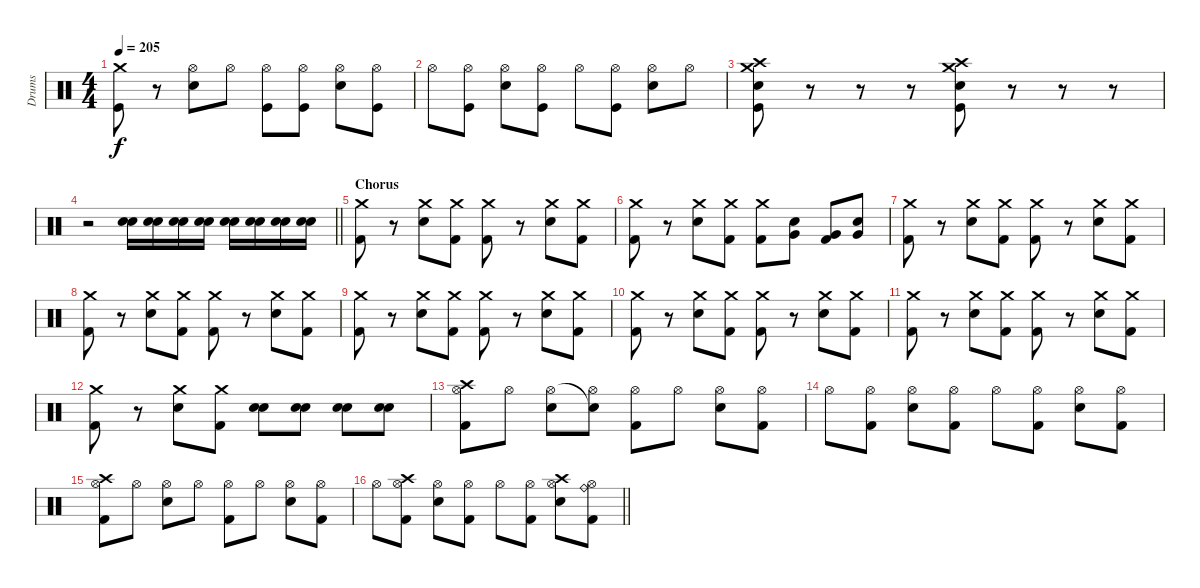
\track ("Drums" "Drums") {instrument percussion}
\staff {score}
\articulation defaults
\ts (4 4)
\tempo 205
\clef neutral
\ks c
("Crash medium (hit)" "Kick (hit)").8{dy f} r.8 ("Hi-Hat (open)" "Electric Snare (hit)").8 "Hi-Hat (open)".8 ("Hi-Hat (open)" "Kick (hit)").8 ("Hi-Hat (open)" "Kick (hit)").8 ("Hi-Hat (open)" "Electric Snare (hit)").8 ("Hi-Hat (open)" "Kick (hit)").8 |
"Hi-Hat (open)".8 ("Hi-Hat (open)" "Kick (hit)").8 ("Hi-Hat (open)" "Electric Snare (hit)").8 ("Hi-Hat (open)" "Kick (hit)").8 "Hi-Hat (open)".8 ("Hi-Hat (open)" "Kick (hit)").8 ("Hi-Hat (open)" "Electric Snare (hit)").8 "Hi-Hat (open)".8 |
("Crash medium (hit)" "Crash high (hit)" "Electric Snare (hit)" "Kick (hit)").8 r.8 r.8 r.8 ("Crash medium (hit)" "Crash high (hit)" "Electric Snare (hit)" "Kick (hit)").8 r.8 r.8 r.8 |
\barLineRight lightlight
r.2 ("Electric Snare (hit)" "Snare (hit) 2").16 ("Electric Snare (hit)" "Snare (hit) 2").16 ("Electric Snare (hit)" "Snare (hit) 2").16 ("Electric Snare (hit)" "Snare (hit) 2").16 ("Electric Snare (hit)" "Snare (hit) 2").16 ("Electric Snare (hit)" "Snare (hit) 2").16 ("Electric Snare (hit)" "Snare (hit) 2").16 ("Electric Snare (hit)" "Snare (hit) 2").16 |
\section ("" "Chorus")
("Kick (hit) 2" "Crash medium (hit)").8 r.8 ("Snare (hit) 2" "Crash medium (hit)").8 ("Kick (hit) 2" "Crash medium (hit)").8 ("Kick (hit) 2" "Crash medium (hit)").8 r.8 ("Snare (hit) 2" "Crash medium (hit)").8 ("Kick (hit) 2" "Crash medium (hit)").8 |
("Kick (hit) 2" "Crash medium (hit)").8 r.8 ("Snare (hit) 2" "Crash medium (hit)").8 ("Kick (hit) 2" "Crash medium (hit)").8 ("Kick (hit) 2" "Crash medium (hit)").8 ("Snare (hit) 2" "Very Low Tom (hit)").8 ("Kick (hit) 2" "Very Low Tom (hit)").8 ("Snare (hit) 2" "Very Low Tom (hit)").8 |
("Kick (hit) 2" "Crash medium (hit)").8 r.8 ("Snare (hit) 2" "Crash medium (hit)").8 ("Kick (hit) 2" "Crash medium (hit)").8 ("Kick (hit) 2" "Crash medium (hit)").8 r.8 ("Snare (hit) 2" "Crash medium (hit)").8 ("Kick (hit) 2" "Crash medium (hit)").8 |
("Kick (hit) 2" "Crash medium (hit)").8 r.8 ("Snare (hit) 2" "Crash medium (hit)").8 ("Kick (hit) 2" "Crash medium (hit)").8 ("Kick (hit) 2" "Crash medium (hit)").8 r.8 ("Snare (hit) 2" "Crash medium (hit)").8 ("Kick (hit) 2" "Crash medium (hit)").8 |
("Kick (hit) 2" "Crash medium (hit)").8 r.8 ("Snare (hit) 2" "Crash medium (hit)").8 ("Kick (hit) 2" "Crash medium (hit)").8 ("Kick (hit) 2" "Crash medium (hit)").8 r.8 ("Snare (hit) 2" "Crash medium (hit)").8 ("Kick (hit) 2" "Crash medium (hit)").8 |
("Kick (hit) 2" "Crash medium (hit)").8 r.8 ("Snare (hit) 2" "Crash medium (hit)").8 ("Kick (hit) 2" "Crash medium (hit)").8 ("Kick (hit) 2" "Crash medium (hit)").8 r.8 ("Snare (hit) 2" "Crash medium (hit)").8 ("Kick (hit) 2" "Crash medium (hit)").8 |
("Kick (hit) 2" "Crash medium (hit)").8 r.8 ("Snare (hit) 2" "Crash medium (hit)").8 ("Kick (hit) 2" "Crash medium (hit)").8 ("Kick (hit) 2" "Crash medium (hit)").8 r.8 ("Snare (hit) 2" "Crash medium (hit)").8 ("Kick (hit) 2" "Crash medium (hit)").8 |
("Kick (hit) 2" "Crash medium (hit)").8 r.8 ("Snare (hit) 2" "Crash medium (hit)").8 ("Kick (hit) 2" "Crash medium (hit)").8 ("Electric Snare (hit)" "Snare (hit) 2").8 ("Electric Snare (hit)" "Snare (hit) 2").8 ("Electric Snare (hit)" "Snare (hit) 2").8 ("Electric Snare (hit)" "Snare (hit) 2").8 |
("Crash high (hit)" "Hi-Hat (open)" "Kick (hit) 2").8 "Hi-Hat (open)".8 ("Hi-Hat (open)" "Electric Snare (hit)").8 ("Snare (hit)"{t} "Hi-Hat (open)").8 ("Hi-Hat (open)" "Kick (hit) 2").8 "Hi-Hat (open)".8 ("Hi-Hat (open)" "Electric Snare (hit)").8 ("Hi-Hat (open)" "Kick (hit) 2").8 |
"Hi-Hat (open)".8 ("Hi-Hat (open)" "Kick (hit) 2").8 ("Hi-Hat (open)" "Electric Snare (hit)").8 ("Hi-Hat (open)" "Kick (hit) 2").8 "Hi-Hat (open)".8 ("Hi-Hat (open)" "Kick (hit) 2").8 ("Hi-Hat (open)" "Electric Snare (hit)").8 ("Hi-Hat (open)" "Kick (hit) 2").8 |
("Crash high (hit)" "Hi-Hat (open)" "Kick (hit) 2").8 "Hi-Hat (open)".8 ("Hi-Hat (open)" "Electric Snare (hit)").8 "Hi-Hat (open)".8 ("Hi-Hat (open)" "Kick (hit) 2").8 "Hi-Hat (open)".8 ("Hi-Hat (open)" "Electric Snare (hit)").8 ("Hi-Hat (open)" "Kick (hit) 2").8 |
\barLineRight lightlight "Hi-Hat (open)".8
("Crash high (hit)" "Hi-Hat (open)" "Kick (hit) 2").8 ("Hi-Hat (open)" "Electric Snare (hit)").8 ("Hi-Hat (open)" "Kick (hit) 2").8 "Hi-Hat (open)".8 ("Hi-Hat (open)" "Kick (hit) 2").8 ("Crash high (hit)" "Hi-Hat (open)" "Electric Snare (hit)").8 ("Ride (bell)" "Hi-Hat (open)" "Kick (hit) 2").8
